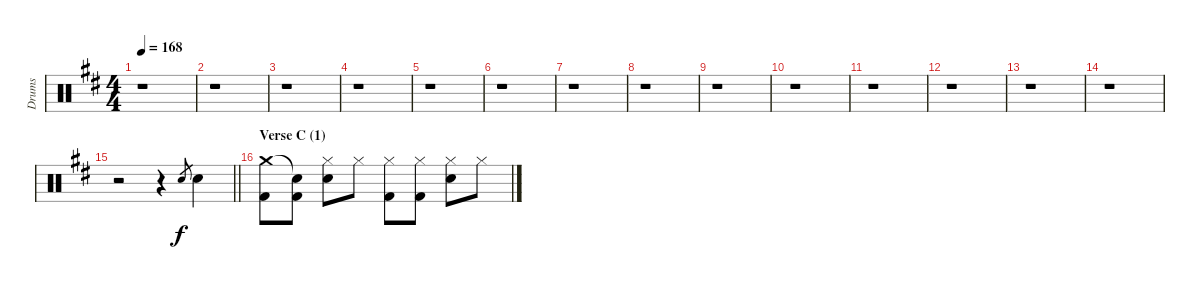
\track ("Drums" "Drums") {instrument percussion}
\staff {score}
\articulation defaults
\ts (4 4)
\tempo 168
\clef neutral
\ks d
r.1{dy f} |
r.1 |
r.1 |
r.1 |
r.1 |
r.1 |
r.1 |
r.1 |
r.1 |
r.1 |
r.1 |
r.1 |
r.1 |
r.1 |
\barLineRight lightlight
r.2 r.4 "Electric Snare (hit)".8{gr} "Electric Snare (hit)".4 |
\section ("" "Verse C (1)")
("Crash medium (hit)" "Kick (hit) 2").8 ("Snare (hit)"{t} "Kick (hit) 2").8 ("Hi-Hat (closed)" "Electric Snare (hit)").8 "Hi-Hat (closed)".8 ("Hi-Hat (closed)" "Kick (hit) 2").8 ("Hi-Hat (closed)" "Kick (hit) 2").8 ("Hi-Hat (closed)" "Electric Snare (hit)").8 "Hi-Hat (closed)".8
